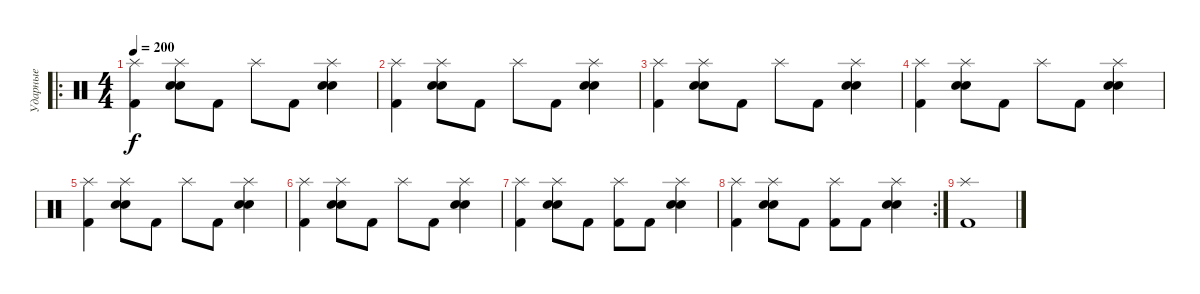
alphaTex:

\track ("Ударные" "Ударные") {instrument percussion}
\staff {score}
\articulation defaults
\ro
\ts (4 4)
\tempo 200
\clef neutral
\ks c
("Splash (hit)" "Kick (hit) 2").4{dy f} ("Splash (hit)" "Electric Snare (hit)" "Snare (hit) 2").8 "Kick (hit) 2".8 "Splash (hit)".8 "Kick (hit) 2".8 ("Splash (hit)" "Electric Snare (hit)" "Snare (hit) 2").4 |
("Splash (hit)" "Kick (hit) 2").4 ("Splash (hit)" "Electric Snare (hit)" "Snare (hit) 2").8 "Kick (hit) 2".8 "Splash (hit)".8 "Kick (hit) 2".8 ("Splash (hit)" "Electric Snare (hit)" "Snare (hit) 2").4 |
("Splash (hit)" "Kick (hit) 2").4 ("Splash (hit)" "Electric Snare (hit)" "Snare (hit) 2").8 "Kick (hit) 2".8 "Splash (hit)".8 "Kick (hit) 2".8 ("Splash (hit)" "Electric Snare (hit)" "Snare (hit) 2").4 |
("Splash (hit)" "Kick (hit) 2").4 ("Splash (hit)" "Electric Snare (hit)" "Snare (hit) 2").8 "Kick (hit) 2".8 "Splash (hit)".8 "Kick (hit) 2".8 ("Splash (hit)" "Electric Snare (hit)" "Snare (hit) 2").4 |
("Splash (hit)" "Kick (hit) 2").4 ("Splash (hit)" "Electric Snare (hit)" "Snare (hit) 2").8 "Kick (hit) 2".8 "Splash (hit)".8 "Kick (hit) 2".8 ("Splash (hit)" "Electric Snare (hit)" "Snare (hit) 2").4 |
("Splash (hit)" "Kick (hit) 2").4 ("Splash (hit)" "Electric Snare (hit)" "Snare (hit) 2").8 "Kick (hit) 2".8 "Splash (hit)".8 "Kick (hit) 2".8 ("Splash (hit)" "Electric Snare (hit)" "Snare (hit) 2").4 |
("Splash (hit)" "Kick (hit) 2").4 ("Splash (hit)" "Electric Snare (hit)" "Snare (hit) 2").8 "Kick (hit) 2".8 ("Splash (hit)" "Kick (hit) 2").8 "Kick (hit) 2".8 ("Splash (hit)" "Electric Snare (hit)" "Snare (hit) 2").4 |
\rc 2
("Splash (hit)" "Kick (hit) 2").4 ("Splash (hit)" "Electric Snare (hit)" "Snare (hit) 2").8 "Kick (hit) 2".8 ("Splash (hit)" "Kick (hit) 2").8 "Kick (hit) 2".8 ("Splash (hit)" "Electric Snare (hit)" "Snare (hit) 2").4 |
("Splash (hit)" "Kick (hit) 2").1
